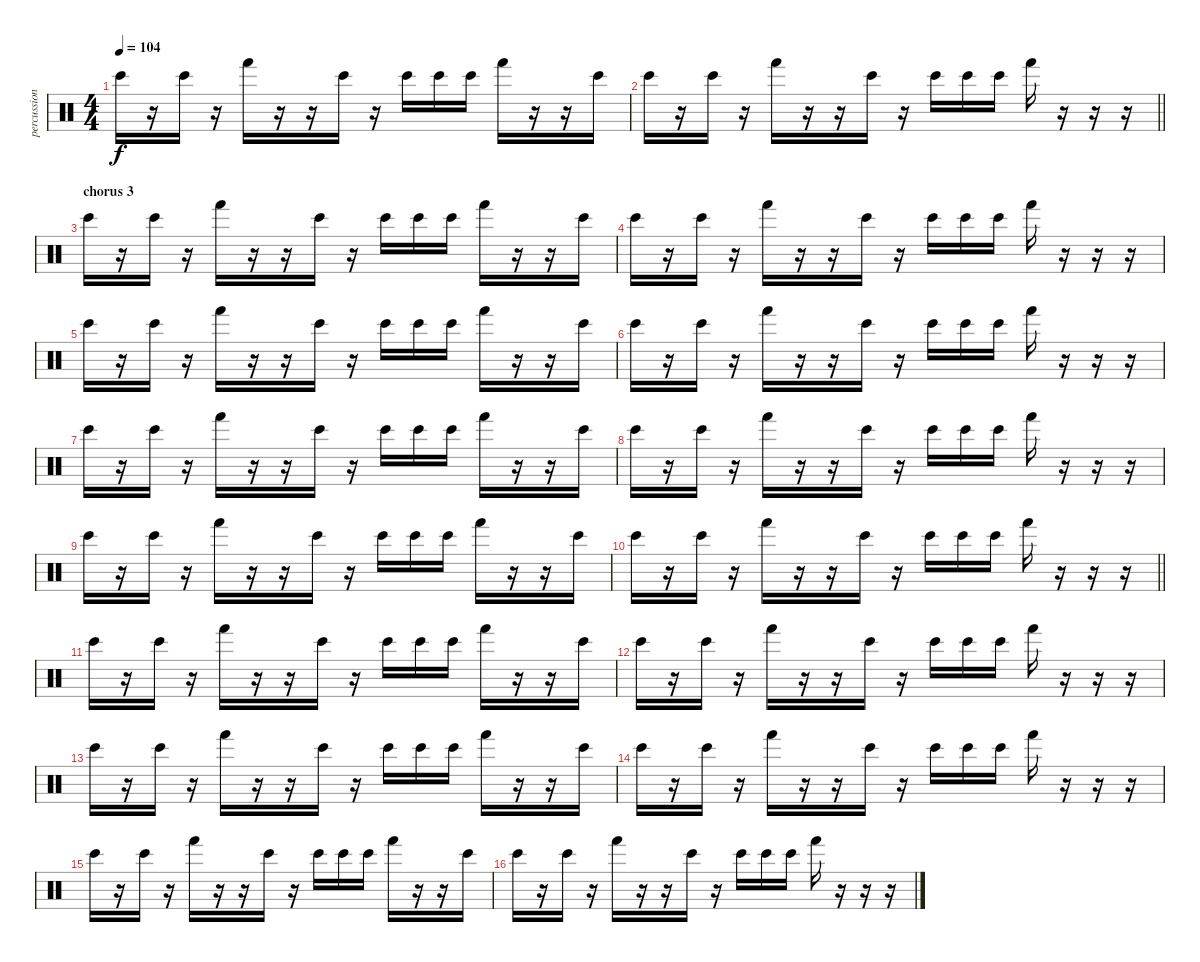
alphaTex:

\track ("percussion" "percussion") {instrument percussion}
\staff {score}
\articulation defaults
\ts (4 4)
\tempo 104
\clef neutral
\ks c "Bongo High (hit)".16{dy f}
r.16 "Bongo High (hit)".16 r.16 "Hand (hit)".16 r.16 r.16 "Bongo High (hit)".16 r.16 "Bongo High (hit)".16 "Bongo High (hit)".16 "Bongo High (hit)".16 "Hand (hit)".16 r.16 r.16 "Bongo High (hit)".16 |
\barLineRight lightlight "Bongo High (hit)".16
r.16 "Bongo High (hit)".16 r.16 "Hand (hit)".16 r.16 r.16 "Bongo High (hit)".16 r.16 "Bongo High (hit)".16 "Bongo High (hit)".16 "Bongo High (hit)".16 "Hand (hit)".16 r.16 r.16 r.16 |
\section ("" "chorus 3")
"Bongo High (hit)".16 r.16 "Bongo High (hit)".16 r.16 "Hand (hit)".16 r.16 r.16 "Bongo High (hit)".16 r.16 "Bongo High (hit)".16 "Bongo High (hit)".16 "Bongo High (hit)".16 "Hand (hit)".16 r.16 r.16 "Bongo High (hit)".16 |
"Bongo High (hit)".16 r.16 "Bongo High (hit)".16 r.16 "Hand (hit)".16 r.16 r.16 "Bongo High (hit)".16 r.16 "Bongo High (hit)".16 "Bongo High (hit)".16 "Bongo High (hit)".16 "Hand (hit)".16 r.16 r.16 r.16 |
"Bongo High (hit)".16 r.16 "Bongo High (hit)".16 r.16 "Hand (hit)".16 r.16 r.16 "Bongo High (hit)".16 r.16 "Bongo High (hit)".16 "Bongo High (hit)".16 "Bongo High (hit)".16 "Hand (hit)".16 r.16 r.16 "Bongo High (hit)".16 |
"Bongo High (hit)".16 r.16 "Bongo High (hit)".16 r.16 "Hand (hit)".16 r.16 r.16 "Bongo High (hit)".16 r.16 "Bongo High (hit)".16 "Bongo High (hit)".16 "Bongo High (hit)".16 "Hand (hit)".16 r.16 r.16 r.16 |
"Bongo High (hit)".16 r.16 "Bongo High (hit)".16 r.16 "Hand (hit)".16 r.16 r.16 "Bongo High (hit)".16 r.16 "Bongo High (hit)".16 "Bongo High (hit)".16 "Bongo High (hit)".16 "Hand (hit)".16 r.16 r.16 "Bongo High (hit)".16 |
"Bongo High (hit)".16 r.16 "Bongo High (hit)".16 r.16 "Hand (hit)".16 r.16 r.16 "Bongo High (hit)".16 r.16 "Bongo High (hit)".16 "Bongo High (hit)".16 "Bongo High (hit)".16 "Hand (hit)".16 r.16 r.16 r.16 |
"Bongo High (hit)".16 r.16 "Bongo High (hit)".16 r.16 "Hand (hit)".16 r.16 r.16 "Bongo High (hit)".16 r.16 "Bongo High (hit)".16 "Bongo High (hit)".16 "Bongo High (hit)".16 "Hand (hit)".16 r.16 r.16 "Bongo High (hit)".16 |
\barLineRight lightlight "Bongo High (hit)".16
r.16 "Bongo High (hit)".16 r.16 "Hand (hit)".16 r.16 r.16 "Bongo High (hit)".16 r.16 "Bongo High (hit)".16 "Bongo High (hit)".16 "Bongo High (hit)".16 "Hand (hit)".16 r.16 r.16 r.16 |
"Bongo High (hit)".16 r.16 "Bongo High (hit)".16 r.16 "Hand (hit)".16 r.16 r.16 "Bongo High (hit)".16 r.16 "Bongo High (hit)".16 "Bongo High (hit)".16 "Bongo High (hit)".16 "Hand (hit)".16 r.16 r.16 "Bongo High (hit)".16 |
"Bongo High (hit)".16 r.16 "Bongo High (hit)".16 r.16 "Hand (hit)".16 r.16 r.16 "Bongo High (hit)".16 r.16 "Bongo High (hit)".16 "Bongo High (hit)".16 "Bongo High (hit)".16 "Hand (hit)".16 r.16 r.16 r.16 |
"Bongo High (hit)".16 r.16 "Bongo High (hit)".16 r.16 "Hand (hit)".16 r.16 r.16 "Bongo High (hit)".16 r.16 "Bongo High (hit)".16 "Bongo High (hit)".16 "Bongo High (hit)".16 "Hand (hit)".16 r.16 r.16 "Bongo High (hit)".16 |
"Bongo High (hit)".16 r.16 "Bongo High (hit)".16 r.16 "Hand (hit)".16 r.16 r.16 "Bongo High (hit)".16 r.16 "Bongo High (hit)".16 "Bongo High (hit)".16 "Bongo High (hit)".16 "Hand (hit)".16 r.16 r.16 r.16 |
"Bongo High (hit)".16 r.16 "Bongo High (hit)".16 r.16 "Hand (hit)".16 r.16 r.16 "Bongo High (hit)".16 r.16 "Bongo High (hit)".16 "Bongo High (hit)".16 "Bongo High (hit)".16 "Hand (hit)".16 r.16 r.16 "Bongo High (hit)".16 |
"Bongo High (hit)".16 r.16 "Bongo High (hit)".16 r.16 "Hand (hit)".16 r.16 r.16 "Bongo High (hit)".16 r.16 "Bongo High (hit)".16 "Bongo High (hit)".16 "Bongo High (hit)".16 "Hand (hit)".16 r.16 r.16 r.16
